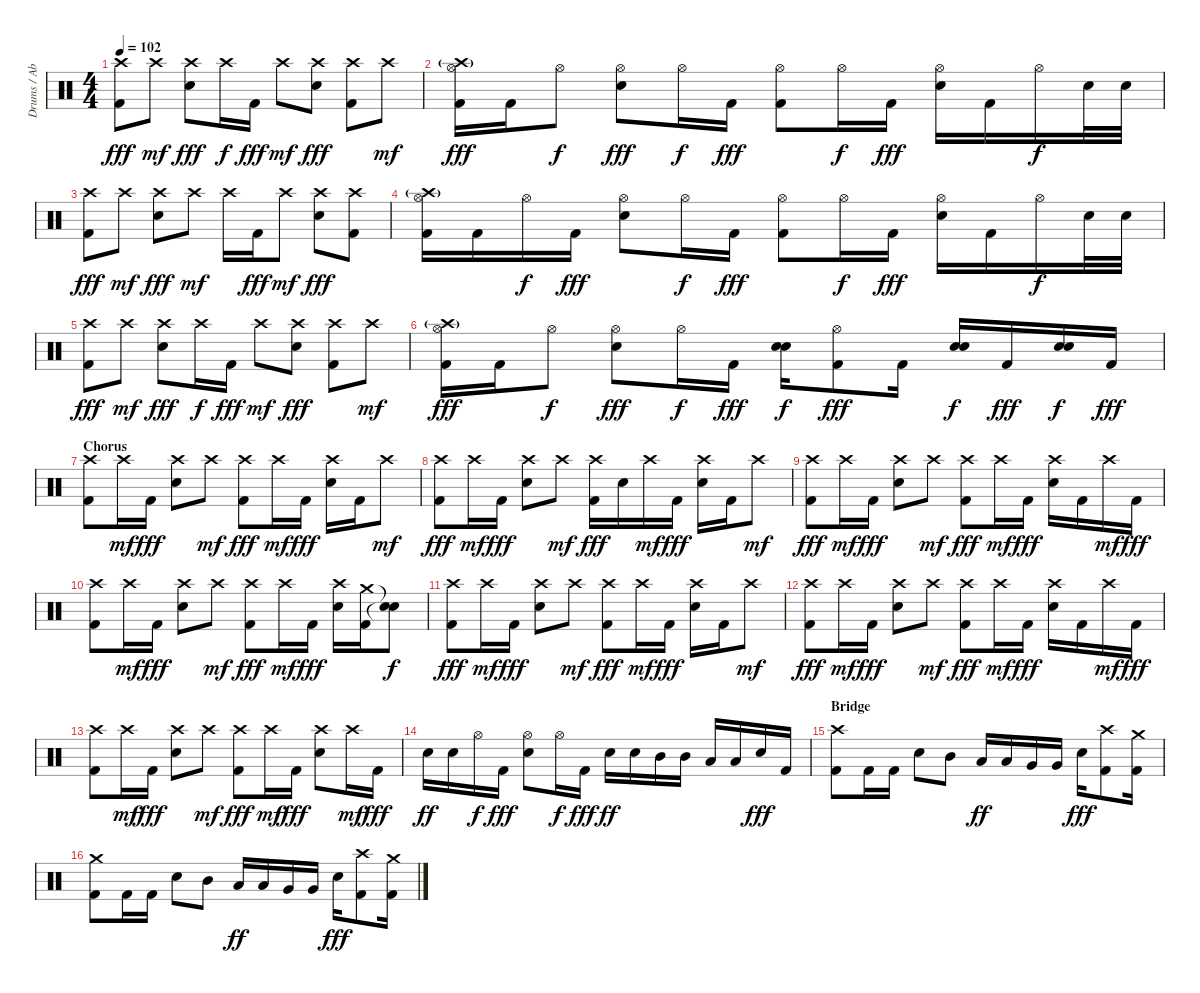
\track ("Drums / Abe Cunningham" "Drums / Ab") {instrument percussion}
\staff {score}
\articulation defaults
\ts (4 4)
\tempo 102
\clef neutral
\ks c
("Crash high (hit)" "Kick (hit) 2").8{dy fff} "Crash high (hit)".8{dy mf} ("Crash high (hit)" "Electric Snare (hit)").8{dy fff} "Crash high (hit)".16{dy f} "Kick (hit) 2".16{dy fff} "Crash high (hit)".8{dy mf} ("Crash high (hit)" "Electric Snare (hit)").8{dy fff} ("Crash high (hit)" "Kick (hit) 2").8 "Crash high (hit)".8{dy mf} |
("Crash high (hit)"{g} "Hi-Hat (open)" "Kick (hit) 2").16{dy fff} "Kick (hit) 2".16 "Hi-Hat (open)".8{dy f} ("Hi-Hat (open)" "Electric Snare (hit)").8{dy fff} "Hi-Hat (open)".16{dy f} "Kick (hit) 2".16{dy fff} ("Hi-Hat (open)" "Kick (hit) 2").8 "Hi-Hat (open)".16{dy f} "Kick (hit) 2".16{dy fff} ("Hi-Hat (open)" "Electric Snare (hit)").16 "Kick (hit) 2".16 "Hi-Hat (open)".16{dy f} "Electric Snare (hit)".32 "Electric Snare (hit)".32 |
("Crash high (hit)" "Kick (hit) 2").8{dy fff} "Crash high (hit)".8{dy mf} ("Crash high (hit)" "Electric Snare (hit)").8{dy fff} "Crash high (hit)".8{dy mf} "Crash high (hit)".16 "Kick (hit) 2".16{dy fff} "Crash high (hit)".8{dy mf} ("Crash high (hit)" "Electric Snare (hit)").8{dy fff} ("Crash high (hit)" "Kick (hit) 2").8 |
("Crash high (hit)"{g} "Hi-Hat (open)" "Kick (hit) 2").16 "Kick (hit) 2".16 "Hi-Hat (open)".16{dy f} "Kick (hit) 2".16{dy fff} ("Hi-Hat (open)" "Electric Snare (hit)").8 "Hi-Hat (open)".16{dy f} "Kick (hit) 2".16{dy fff} ("Hi-Hat (open)" "Kick (hit) 2").8 "Hi-Hat (open)".16{dy f} "Kick (hit) 2".16{dy fff} ("Hi-Hat (open)" "Electric Snare (hit)").16 "Kick (hit) 2".16 "Hi-Hat (open)".16{dy f} "Electric Snare (hit)".32 "Electric Snare (hit)".32 |
("Crash high (hit)" "Kick (hit) 2").8{dy fff} "Crash high (hit)".8{dy mf} ("Crash high (hit)" "Electric Snare (hit)").8{dy fff} "Crash high (hit)".16{dy f} "Kick (hit) 2".16{dy fff} "Crash high (hit)".8{dy mf} ("Crash high (hit)" "Electric Snare (hit)").8{dy fff} ("Crash high (hit)" "Kick (hit) 2").8 "Crash high (hit)".8{dy mf} |
("Crash high (hit)"{g} "Hi-Hat (open)" "Kick (hit) 2").16{dy fff} "Kick (hit) 2".16 "Hi-Hat (open)".8{dy f} ("Hi-Hat (open)" "Electric Snare (hit)").8{dy fff} "Hi-Hat (open)".16{dy f} "Kick (hit) 2".16{dy fff} ("Electric Snare (hit)" "Electric Snare (hit)").16{dy f} ("Hi-Hat (open)" "Kick (hit) 2").8{dy fff} "Kick (hit) 2".16 ("Electric Snare (hit)" "Electric Snare (hit)").16{dy f} "Kick (hit) 2".16{dy fff} ("Electric Snare (hit)" "Electric Snare (hit)").16{dy f} "Kick (hit) 2".16{dy fff} |
\section ("" "Chorus")
("Crash high (hit)" "Kick (hit) 2").8 "Crash high (hit)".16{dy mf} "Kick (hit) 2".16{dy fff} ("Crash high (hit)" "Electric Snare (hit)").8 "Crash high (hit)".8{dy mf} ("Crash high (hit)" "Kick (hit) 2").8{dy fff} "Crash high (hit)".16{dy mf} "Kick (hit) 2".16{dy fff} ("Crash high (hit)" "Electric Snare (hit)").16 "Kick (hit) 2".16 "Crash high (hit)".8{dy mf} |
("Crash high (hit)" "Kick (hit) 2").8{dy fff} "Crash high (hit)".16{dy mf} "Kick (hit) 2".16{dy fff} ("Crash high (hit)" "Electric Snare (hit)").8 "Crash high (hit)".8{dy mf} ("Crash high (hit)" "Kick (hit) 2").16{dy fff} "Electric Snare (hit)".16 "Crash high (hit)".16{dy mf} "Kick (hit) 2".16{dy fff} ("Crash high (hit)" "Electric Snare (hit)").16 "Kick (hit) 2".16 "Crash high (hit)".8{dy mf} |
("Crash high (hit)" "Kick (hit) 2").8{dy fff} "Crash high (hit)".16{dy mf} "Kick (hit) 2".16{dy fff} ("Crash high (hit)" "Electric Snare (hit)").8 "Crash high (hit)".8{dy mf} ("Crash high (hit)" "Kick (hit) 2").8{dy fff} "Crash high (hit)".16{dy mf} "Kick (hit) 2".16{dy fff} ("Crash high (hit)" "Electric Snare (hit)").16 "Kick (hit) 2".16 "Crash high (hit)".16{dy mf} "Kick (hit) 2".16{dy fff} |
("Crash high (hit)" "Kick (hit) 2").8 "Crash high (hit)".16{dy mf} "Kick (hit) 2".16{dy fff} ("Crash high (hit)" "Electric Snare (hit)").8 "Crash high (hit)".8{dy mf} ("Crash high (hit)" "Kick (hit) 2").8{dy fff} "Crash high (hit)".16{dy mf} "Kick (hit) 2".16{dy fff} ("Crash high (hit)" "Electric Snare (hit)").16 ("Crash medium (hit)" "Kick (hit) 2").16 ("Snare (hit)"{t} "Snare (hit)"{t}).8{dy f} |
("Crash high (hit)" "Kick (hit) 2").8{dy fff} "Crash high (hit)".16{dy mf} "Kick (hit) 2".16{dy fff} ("Crash high (hit)" "Electric Snare (hit)").8 "Crash high (hit)".8{dy mf} ("Crash high (hit)" "Kick (hit) 2").8{dy fff} "Crash high (hit)".16{dy mf} "Kick (hit) 2".16{dy fff} ("Crash high (hit)" "Electric Snare (hit)").16 "Kick (hit) 2".16 "Crash high (hit)".8{dy mf} |
("Crash high (hit)" "Kick (hit) 2").8{dy fff} "Crash high (hit)".16{dy mf} "Kick (hit) 2".16{dy fff} ("Crash high (hit)" "Electric Snare (hit)").8 "Crash high (hit)".8{dy mf} ("Crash high (hit)" "Kick (hit) 2").8{dy fff} "Crash high (hit)".16{dy mf} "Kick (hit) 2".16{dy fff} ("Crash high (hit)" "Electric Snare (hit)").16 "Kick (hit) 2".16 "Crash high (hit)".16{dy mf} "Kick (hit) 2".16{dy fff} |
("Crash high (hit)" "Kick (hit) 2").8 "Crash high (hit)".16{dy mf} "Kick (hit) 2".16{dy fff} ("Crash high (hit)" "Electric Snare (hit)").8 "Crash high (hit)".8{dy mf} ("Crash high (hit)" "Kick (hit) 2").8{dy fff} "Crash high (hit)".16{dy mf} "Kick (hit) 2".16{dy fff} ("Crash high (hit)" "Electric Snare (hit)").8 "Crash high (hit)".16{dy mf} "Kick (hit) 2".16{dy fff} |
"Electric Snare (hit)".16{dy ff} "Electric Snare (hit)".16 "Hi-Hat (open)".16{dy f} "Kick (hit) 2".16{dy fff} ("Hi-Hat (open)" "Electric Snare (hit)").8 "Hi-Hat (open)".16{dy f} "Kick (hit) 2".16{dy fff} "Electric Snare (hit)".16{dy ff} "Electric Snare (hit)".16 "Mid Tom (hit)".16 "Mid Tom (hit)".16 "Low Tom (hit)".16 "Low Tom (hit)".16 "Electric Snare (hit)".16{dy fff} "Kick (hit) 2".16 |
\section ("" "Bridge")
("Crash high (hit)" "Kick (hit) 2").8 "Kick (hit) 2".16 "Kick (hit) 2".16 "Electric Snare (hit)".8 "Mid Tom (hit)".8 "Low Tom (hit)".16{dy ff} "Low Tom (hit)".16 "Very Low Tom (hit)".16 "Very Low Tom (hit)".16 "Electric Snare (hit)".16{dy fff} ("Crash high (hit)" "Kick (hit) 2").8 ("Crash medium (hit)" "Kick (hit) 2").16 |
("Crash medium (hit)" "Kick (hit) 2").8 "Kick (hit) 2".16 "Kick (hit) 2".16 "Electric Snare (hit)".8 "Mid Tom (hit)".8 "Low Tom (hit)".16{dy ff} "Low Tom (hit)".16 "Very Low Tom (hit)".16 "Very Low Tom (hit)".16 "Electric Snare (hit)".16{dy fff} ("Crash high (hit)" "Kick (hit) 2").8 ("Crash medium (hit)" "Kick (hit) 2").16
